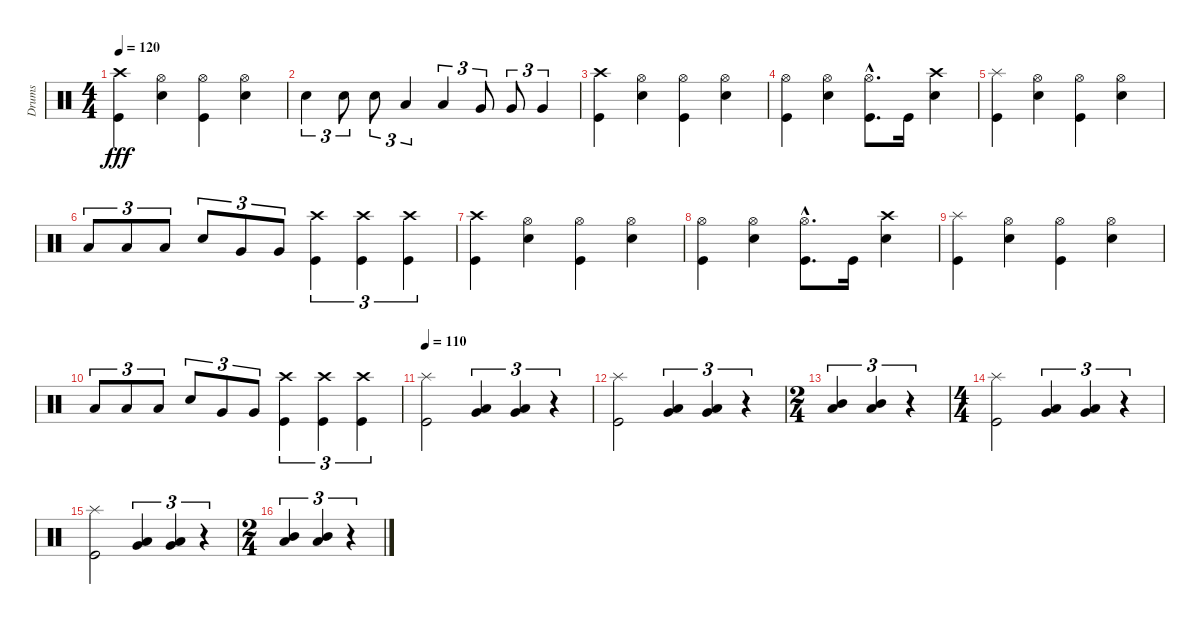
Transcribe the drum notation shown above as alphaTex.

\track ("Drums" "Drums") {instrument percussion}
\staff {score}
\articulation defaults
\ts (4 4)
\tempo 120
\clef neutral
\ks c
("Crash high (hit)" "Kick (hit)").4{dy fff} ("Hi-Hat (open)" "Snare (hit) 2").4 ("Hi-Hat (open)" "Kick (hit)").4 ("Hi-Hat (open)" "Snare (hit) 2").4 |
"Snare (hit) 2".4{tu (3 2)} "Snare (hit) 2".8{tu (3 2)} "Snare (hit) 2".8{tu (3 2)} "Low Tom (hit)".4{tu (3 2)} "Low Tom (hit)".4{tu (3 2)} "Very Low Tom (hit)".8{tu (3 2)} "Very Low Tom (hit)".8{tu (3 2)} "Very Low Tom (hit)".4{tu (3 2)} |
("Crash high (hit)" "Kick (hit)").4 ("Hi-Hat (open)" "Snare (hit) 2").4 ("Hi-Hat (open)" "Kick (hit)").4 ("Hi-Hat (open)" "Snare (hit) 2").4 |
("Hi-Hat (open)" "Kick (hit)").4 ("Hi-Hat (open)" "Snare (hit) 2").4 ("Hi-Hat (open)"{hac} "Kick (hit)"{hac}).8{d} "Kick (hit)".16 ("Crash high (hit)" "Snare (hit) 2").4 |
("Splash (hit)" "Kick (hit)").4 ("Hi-Hat (open)" "Snare (hit) 2").4 ("Hi-Hat (open)" "Kick (hit)").4 ("Hi-Hat (open)" "Snare (hit) 2").4 |
"Low Tom (hit)".8{tu (3 2)} "Low Tom (hit)".8{tu (3 2)} "Low Tom (hit)".8{tu (3 2)} "Snare (hit) 2".8{tu (3 2)} "Very Low Tom (hit)".8{tu (3 2)} "Very Low Tom (hit)".8{tu (3 2)} ("Crash high (hit)" "Kick (hit)").4{tu (3 2)} ("Crash high (hit)" "Kick (hit)").4{tu (3 2)} ("Crash high (hit)" "Kick (hit)").4{tu (3 2)} |
("Crash high (hit)" "Kick (hit)").4 ("Hi-Hat (open)" "Snare (hit) 2").4 ("Hi-Hat (open)" "Kick (hit)").4 ("Hi-Hat (open)" "Snare (hit) 2").4 |
("Hi-Hat (open)" "Kick (hit)").4 ("Hi-Hat (open)" "Snare (hit) 2").4 ("Hi-Hat (open)"{hac} "Kick (hit)"{hac}).8{d} "Kick (hit)".16 ("Crash high (hit)" "Snare (hit) 2").4 |
("Splash (hit)" "Kick (hit)").4 ("Hi-Hat (open)" "Snare (hit) 2").4 ("Hi-Hat (open)" "Kick (hit)").4 ("Hi-Hat (open)" "Snare (hit) 2").4 |
"Low Tom (hit)".8{tu (3 2)} "Low Tom (hit)".8{tu (3 2)} "Low Tom (hit)".8{tu (3 2)} "Snare (hit) 2".8{tu (3 2)} "Very Low Tom (hit)".8{tu (3 2)} "Very Low Tom (hit)".8{tu (3 2)} ("Crash high (hit)" "Kick (hit)").4{tu (3 2)} ("Crash high (hit)" "Kick (hit)").4{tu (3 2)} ("Crash high (hit)" "Kick (hit)").4{tu (3 2)} |
\tempo 110
("Splash (hit)" "Kick (hit)").2 ("Low Tom (hit)" "Very Low Tom (hit)").4{tu (3 2)} ("Low Tom (hit)" "Very Low Tom (hit)").4{tu (3 2)} r.4{tu (3 2)} |
("Splash (hit)" "Kick (hit)").2 ("Low Tom (hit)" "Very Low Tom (hit)").4{tu (3 2)} ("Low Tom (hit)" "Very Low Tom (hit)").4{tu (3 2)} r.4{tu (3 2)} |
\ts (2 4)
("Mid Tom (hit)" "Low Tom (hit)").4{tu (3 2)} ("Mid Tom (hit)" "Low Tom (hit)").4{tu (3 2)} r.4{tu (3 2)} |
\ts (4 4)
("Splash (hit)" "Kick (hit)").2 ("Low Tom (hit)" "Very Low Tom (hit)").4{tu (3 2)} ("Low Tom (hit)" "Very Low Tom (hit)").4{tu (3 2)} r.4{tu (3 2)} |
("Splash (hit)" "Kick (hit)").2 ("Low Tom (hit)" "Very Low Tom (hit)").4{tu (3 2)} ("Low Tom (hit)" "Very Low Tom (hit)").4{tu (3 2)} r.4{tu (3 2)} |
\ts (2 4)
("Mid Tom (hit)" "Low Tom (hit)").4{tu (3 2)} ("Mid Tom (hit)" "Low Tom (hit)").4{tu (3 2)} r.4{tu (3 2)}
